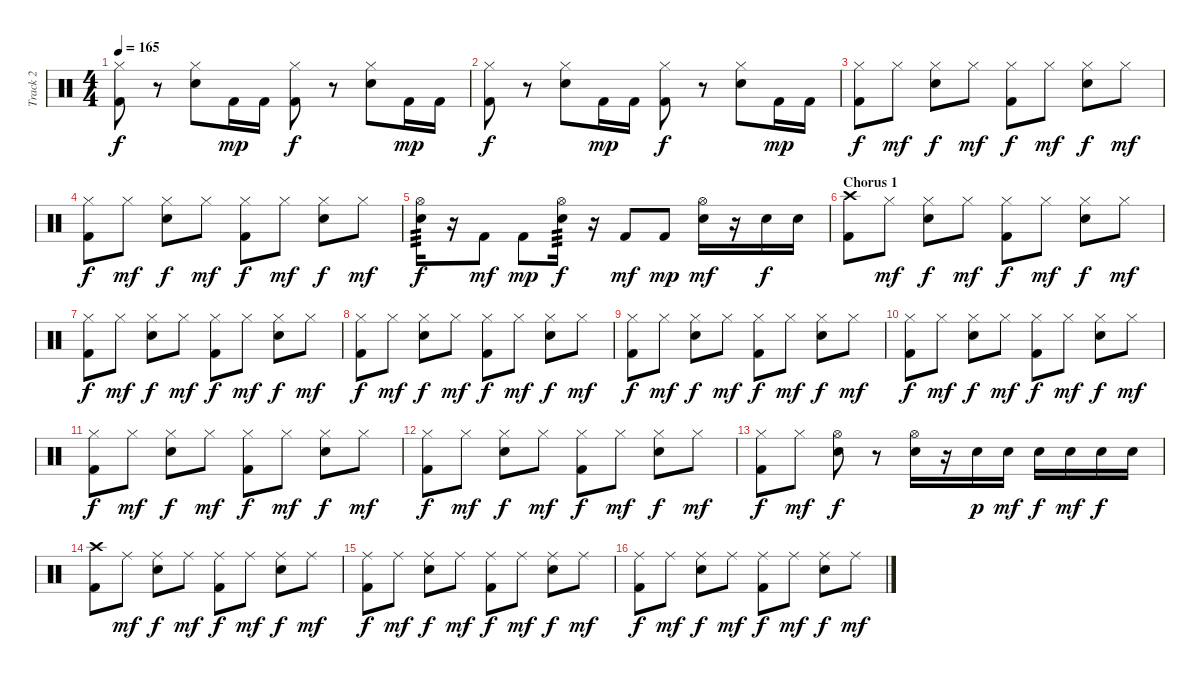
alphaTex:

\track ("Track 2" "Track 2") {instrument percussion}
\staff {score}
\articulation defaults
\ts (4 4)
\tempo 165
\clef neutral
\ks c
("Hi-Hat (closed)" "Kick (hit) 2").8{dy f} r.8 ("Hi-Hat (closed)" "Electric Snare (hit)").8 "Kick (hit) 2".16{dy mp} "Kick (hit) 2".16 ("Hi-Hat (closed)" "Kick (hit) 2").8{dy f} r.8 ("Hi-Hat (closed)" "Electric Snare (hit)").8 "Kick (hit) 2".16{dy mp} "Kick (hit) 2".16 |
("Hi-Hat (closed)" "Kick (hit) 2").8{dy f} r.8 ("Hi-Hat (closed)" "Electric Snare (hit)").8 "Kick (hit) 2".16{dy mp} "Kick (hit) 2".16 ("Hi-Hat (closed)" "Kick (hit) 2").8{dy f} r.8 ("Hi-Hat (closed)" "Electric Snare (hit)").8 "Kick (hit) 2".16{dy mp} "Kick (hit) 2".16 |
("Hi-Hat (closed)" "Kick (hit) 2").8{dy f} "Hi-Hat (closed)".8{dy mf} ("Hi-Hat (closed)" "Electric Snare (hit)").8{dy f} "Hi-Hat (closed)".8{dy mf} ("Hi-Hat (closed)" "Kick (hit) 2").8{dy f} "Hi-Hat (closed)".8{dy mf} ("Hi-Hat (closed)" "Electric Snare (hit)").8{dy f} "Hi-Hat (closed)".8{dy mf} |
("Hi-Hat (closed)" "Kick (hit) 2").8{dy f} "Hi-Hat (closed)".8{dy mf} ("Hi-Hat (closed)" "Electric Snare (hit)").8{dy f} "Hi-Hat (closed)".8{dy mf} ("Hi-Hat (closed)" "Kick (hit) 2").8{dy f} "Hi-Hat (closed)".8{dy mf} ("Hi-Hat (closed)" "Electric Snare (hit)").8{dy f} "Hi-Hat (closed)".8{dy mf} |
("Hi-Hat (open)" "Electric Snare (hit)").16{tp 3 dy f} r.16 "Kick (hit) 2".8{dy mf} "Kick (hit) 2".8{dy mp} ("Hi-Hat (open)" "Electric Snare (hit)").16{tp 3 dy f} r.16 "Kick (hit) 2".8{dy mf} "Kick (hit) 2".8{dy mp} ("Hi-Hat (open)" "Electric Snare (hit)").16{dy mf} r.16 "Electric Snare (hit)".16{dy f} "Electric Snare (hit)".16 |
\section ("" "Chorus 1")
("Crash high (hit)" "Kick (hit) 2").8 "Hi-Hat (closed)".8{dy mf} ("Hi-Hat (closed)" "Electric Snare (hit)").8{dy f} "Hi-Hat (closed)".8{dy mf} ("Hi-Hat (closed)" "Kick (hit) 2").8{dy f} "Hi-Hat (closed)".8{dy mf} ("Hi-Hat (closed)" "Electric Snare (hit)").8{dy f} "Hi-Hat (closed)".8{dy mf} |
("Hi-Hat (closed)" "Kick (hit) 2").8{dy f} "Hi-Hat (closed)".8{dy mf} ("Hi-Hat (closed)" "Electric Snare (hit)").8{dy f} "Hi-Hat (closed)".8{dy mf} ("Hi-Hat (closed)" "Kick (hit) 2").8{dy f} "Hi-Hat (closed)".8{dy mf} ("Hi-Hat (closed)" "Electric Snare (hit)").8{dy f} "Hi-Hat (closed)".8{dy mf} |
("Hi-Hat (closed)" "Kick (hit) 2").8{dy f} "Hi-Hat (closed)".8{dy mf} ("Hi-Hat (closed)" "Electric Snare (hit)").8{dy f} "Hi-Hat (closed)".8{dy mf} ("Hi-Hat (closed)" "Kick (hit) 2").8{dy f} "Hi-Hat (closed)".8{dy mf} ("Hi-Hat (closed)" "Electric Snare (hit)").8{dy f} "Hi-Hat (closed)".8{dy mf} |
("Hi-Hat (closed)" "Kick (hit) 2").8{dy f} "Hi-Hat (closed)".8{dy mf} ("Hi-Hat (closed)" "Electric Snare (hit)").8{dy f} "Hi-Hat (closed)".8{dy mf} ("Hi-Hat (closed)" "Kick (hit) 2").8{dy f} "Hi-Hat (closed)".8{dy mf} ("Hi-Hat (closed)" "Electric Snare (hit)").8{dy f} "Hi-Hat (closed)".8{dy mf} |
("Hi-Hat (closed)" "Kick (hit) 2").8{dy f} "Hi-Hat (closed)".8{dy mf} ("Hi-Hat (closed)" "Electric Snare (hit)").8{dy f} "Hi-Hat (closed)".8{dy mf} ("Hi-Hat (closed)" "Kick (hit) 2").8{dy f} "Hi-Hat (closed)".8{dy mf} ("Hi-Hat (closed)" "Electric Snare (hit)").8{dy f} "Hi-Hat (closed)".8{dy mf} |
("Hi-Hat (closed)" "Kick (hit) 2").8{dy f} "Hi-Hat (closed)".8{dy mf} ("Hi-Hat (closed)" "Electric Snare (hit)").8{dy f} "Hi-Hat (closed)".8{dy mf} ("Hi-Hat (closed)" "Kick (hit) 2").8{dy f} "Hi-Hat (closed)".8{dy mf} ("Hi-Hat (closed)" "Electric Snare (hit)").8{dy f} "Hi-Hat (closed)".8{dy mf} |
("Hi-Hat (closed)" "Kick (hit) 2").8{dy f} "Hi-Hat (closed)".8{dy mf} ("Hi-Hat (closed)" "Electric Snare (hit)").8{dy f} "Hi-Hat (closed)".8{dy mf} ("Hi-Hat (closed)" "Kick (hit) 2").8{dy f} "Hi-Hat (closed)".8{dy mf} ("Hi-Hat (closed)" "Electric Snare (hit)").8{dy f} "Hi-Hat (closed)".8{dy mf} |
("Hi-Hat (closed)" "Kick (hit) 2").8{dy f} "Hi-Hat (closed)".8{dy mf} ("Hi-Hat (open)" "Electric Snare (hit)").8{dy f} r.8 ("Hi-Hat (open)" "Electric Snare (hit)").16 r.16 "Electric Snare (hit)".16{dy p} "Electric Snare (hit)".16{dy mf} "Electric Snare (hit)".16{dy f} "Electric Snare (hit)".16{dy mf} "Electric Snare (hit)".16{dy f} "Electric Snare (hit)".16 |
("Crash high (hit)" "Kick (hit) 2").8 "Ride (middle)".8{dy mf} ("Ride (middle)" "Electric Snare (hit)").8{dy f} "Ride (middle)".8{dy mf} ("Ride (middle)" "Kick (hit) 2").8{dy f} "Ride (middle)".8{dy mf} ("Ride (middle)" "Electric Snare (hit)").8{dy f} "Ride (middle)".8{dy mf} |
("Ride (middle)" "Kick (hit) 2").8{dy f} "Ride (middle)".8{dy mf} ("Ride (middle)" "Electric Snare (hit)").8{dy f} "Ride (middle)".8{dy mf} ("Ride (middle)" "Kick (hit) 2").8{dy f} "Ride (middle)".8{dy mf} ("Ride (middle)" "Electric Snare (hit)").8{dy f} "Ride (middle)".8{dy mf} |
("Ride (middle)" "Kick (hit) 2").8{dy f} "Ride (middle)".8{dy mf} ("Ride (middle)" "Electric Snare (hit)").8{dy f} "Ride (middle)".8{dy mf} ("Ride (middle)" "Kick (hit) 2").8{dy f} "Ride (middle)".8{dy mf} ("Ride (middle)" "Electric Snare (hit)").8{dy f} "Ride (middle)".8{dy mf}
